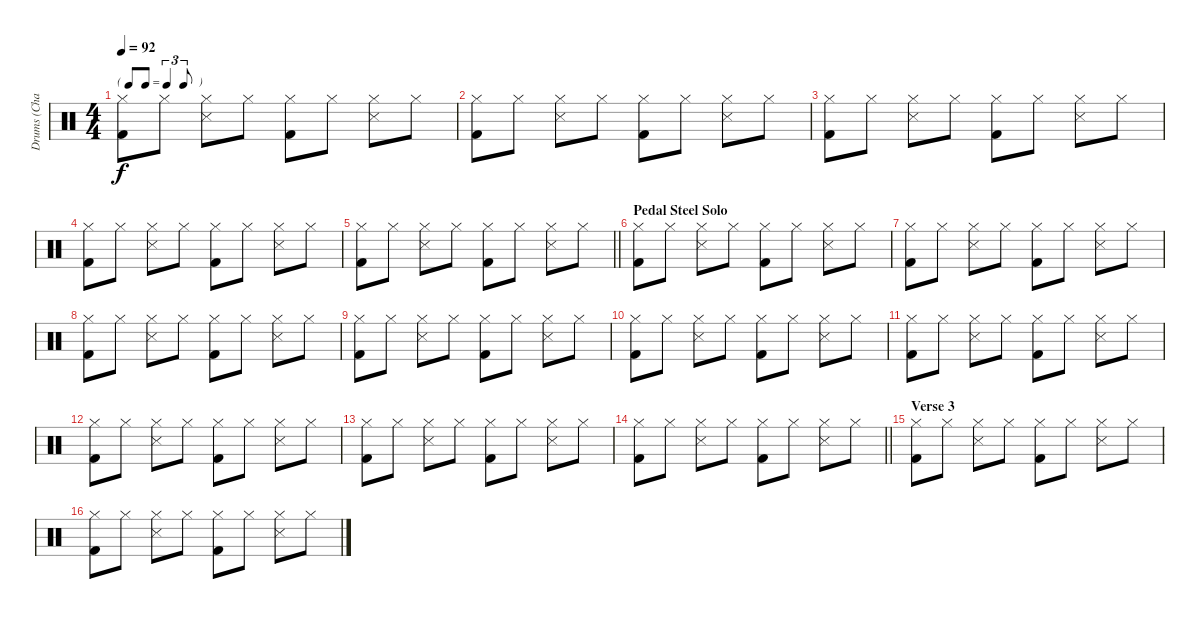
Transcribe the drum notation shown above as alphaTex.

\track ("Drums (Charlie)" "Drums (Cha") {instrument percussion}
\staff {score}
\articulation defaults
\ts (4 4)
\tf triplet8th
\tempo 92
\clef neutral
\ks c
("Hi-Hat (closed)" "Kick (hit) 2").8{dy f} "Hi-Hat (closed)".8 ("Hi-Hat (closed)" "Snare (side stick) 3").8 "Hi-Hat (closed)".8 ("Hi-Hat (closed)" "Kick (hit) 2").8 "Hi-Hat (closed)".8 ("Hi-Hat (closed)" "Snare (side stick) 3").8 "Hi-Hat (closed)".8 |
("Hi-Hat (closed)" "Kick (hit) 2").8 "Hi-Hat (closed)".8 ("Hi-Hat (closed)" "Snare (side stick) 3").8 "Hi-Hat (closed)".8 ("Hi-Hat (closed)" "Kick (hit) 2").8 "Hi-Hat (closed)".8 ("Hi-Hat (closed)" "Snare (side stick) 3").8 "Hi-Hat (closed)".8 |
("Hi-Hat (closed)" "Kick (hit) 2").8 "Hi-Hat (closed)".8 ("Hi-Hat (closed)" "Snare (side stick) 3").8 "Hi-Hat (closed)".8 ("Hi-Hat (closed)" "Kick (hit) 2").8 "Hi-Hat (closed)".8 ("Hi-Hat (closed)" "Snare (side stick) 3").8 "Hi-Hat (closed)".8 |
("Hi-Hat (closed)" "Kick (hit) 2").8 "Hi-Hat (closed)".8 ("Hi-Hat (closed)" "Snare (side stick) 3").8 "Hi-Hat (closed)".8 ("Hi-Hat (closed)" "Kick (hit) 2").8 "Hi-Hat (closed)".8 ("Hi-Hat (closed)" "Snare (side stick) 3").8 "Hi-Hat (closed)".8 |
\barLineRight lightlight
("Hi-Hat (closed)" "Kick (hit) 2").8 "Hi-Hat (closed)".8 ("Hi-Hat (closed)" "Snare (side stick) 3").8 "Hi-Hat (closed)".8 ("Hi-Hat (closed)" "Kick (hit) 2").8 "Hi-Hat (closed)".8 ("Hi-Hat (closed)" "Snare (side stick) 3").8 "Hi-Hat (closed)".8 |
\section ("" "Pedal Steel Solo")
("Hi-Hat (closed)" "Kick (hit) 2").8 "Hi-Hat (closed)".8 ("Hi-Hat (closed)" "Snare (side stick) 3").8 "Hi-Hat (closed)".8 ("Hi-Hat (closed)" "Kick (hit) 2").8 "Hi-Hat (closed)".8 ("Hi-Hat (closed)" "Snare (side stick) 3").8 "Hi-Hat (closed)".8 |
("Hi-Hat (closed)" "Kick (hit) 2").8 "Hi-Hat (closed)".8 ("Hi-Hat (closed)" "Snare (side stick) 3").8 "Hi-Hat (closed)".8 ("Hi-Hat (closed)" "Kick (hit) 2").8 "Hi-Hat (closed)".8 ("Hi-Hat (closed)" "Snare (side stick) 3").8 "Hi-Hat (closed)".8 |
("Hi-Hat (closed)" "Kick (hit) 2").8 "Hi-Hat (closed)".8 ("Hi-Hat (closed)" "Snare (side stick) 3").8 "Hi-Hat (closed)".8 ("Hi-Hat (closed)" "Kick (hit) 2").8 "Hi-Hat (closed)".8 ("Hi-Hat (closed)" "Snare (side stick) 3").8 "Hi-Hat (closed)".8 |
("Hi-Hat (closed)" "Kick (hit) 2").8 "Hi-Hat (closed)".8 ("Hi-Hat (closed)" "Snare (side stick) 3").8 "Hi-Hat (closed)".8 ("Hi-Hat (closed)" "Kick (hit) 2").8 "Hi-Hat (closed)".8 ("Hi-Hat (closed)" "Snare (side stick) 3").8 "Hi-Hat (closed)".8 |
("Hi-Hat (closed)" "Kick (hit) 2").8 "Hi-Hat (closed)".8 ("Hi-Hat (closed)" "Snare (side stick) 3").8 "Hi-Hat (closed)".8 ("Hi-Hat (closed)" "Kick (hit) 2").8 "Hi-Hat (closed)".8 ("Hi-Hat (closed)" "Snare (side stick) 3").8 "Hi-Hat (closed)".8 |
("Hi-Hat (closed)" "Kick (hit) 2").8 "Hi-Hat (closed)".8 ("Hi-Hat (closed)" "Snare (side stick) 3").8 "Hi-Hat (closed)".8 ("Hi-Hat (closed)" "Kick (hit) 2").8 "Hi-Hat (closed)".8 ("Hi-Hat (closed)" "Snare (side stick) 3").8 "Hi-Hat (closed)".8 |
("Hi-Hat (closed)" "Kick (hit) 2").8 "Hi-Hat (closed)".8 ("Hi-Hat (closed)" "Snare (side stick) 3").8 "Hi-Hat (closed)".8 ("Hi-Hat (closed)" "Kick (hit) 2").8 "Hi-Hat (closed)".8 ("Hi-Hat (closed)" "Snare (side stick) 3").8 "Hi-Hat (closed)".8 |
("Hi-Hat (closed)" "Kick (hit) 2").8 "Hi-Hat (closed)".8 ("Hi-Hat (closed)" "Snare (side stick) 3").8 "Hi-Hat (closed)".8 ("Hi-Hat (closed)" "Kick (hit) 2").8 "Hi-Hat (closed)".8 ("Hi-Hat (closed)" "Snare (side stick) 3").8 "Hi-Hat (closed)".8 |
\barLineRight lightlight
("Hi-Hat (closed)" "Kick (hit) 2").8 "Hi-Hat (closed)".8 ("Hi-Hat (closed)" "Snare (side stick) 3").8 "Hi-Hat (closed)".8 ("Hi-Hat (closed)" "Kick (hit) 2").8 "Hi-Hat (closed)".8 ("Hi-Hat (closed)" "Snare (side stick) 3").8 "Hi-Hat (closed)".8 |
\section ("" "Verse 3")
("Hi-Hat (closed)" "Kick (hit) 2").8 "Hi-Hat (closed)".8 ("Hi-Hat (closed)" "Snare (side stick) 3").8 "Hi-Hat (closed)".8 ("Hi-Hat (closed)" "Kick (hit) 2").8 "Hi-Hat (closed)".8 ("Hi-Hat (closed)" "Snare (side stick) 3").8 "Hi-Hat (closed)".8 |
("Hi-Hat (closed)" "Kick (hit) 2").8 "Hi-Hat (closed)".8 ("Hi-Hat (closed)" "Snare (side stick) 3").8 "Hi-Hat (closed)".8 ("Hi-Hat (closed)" "Kick (hit) 2").8 "Hi-Hat (closed)".8 ("Hi-Hat (closed)" "Snare (side stick) 3").8 "Hi-Hat (closed)".8
